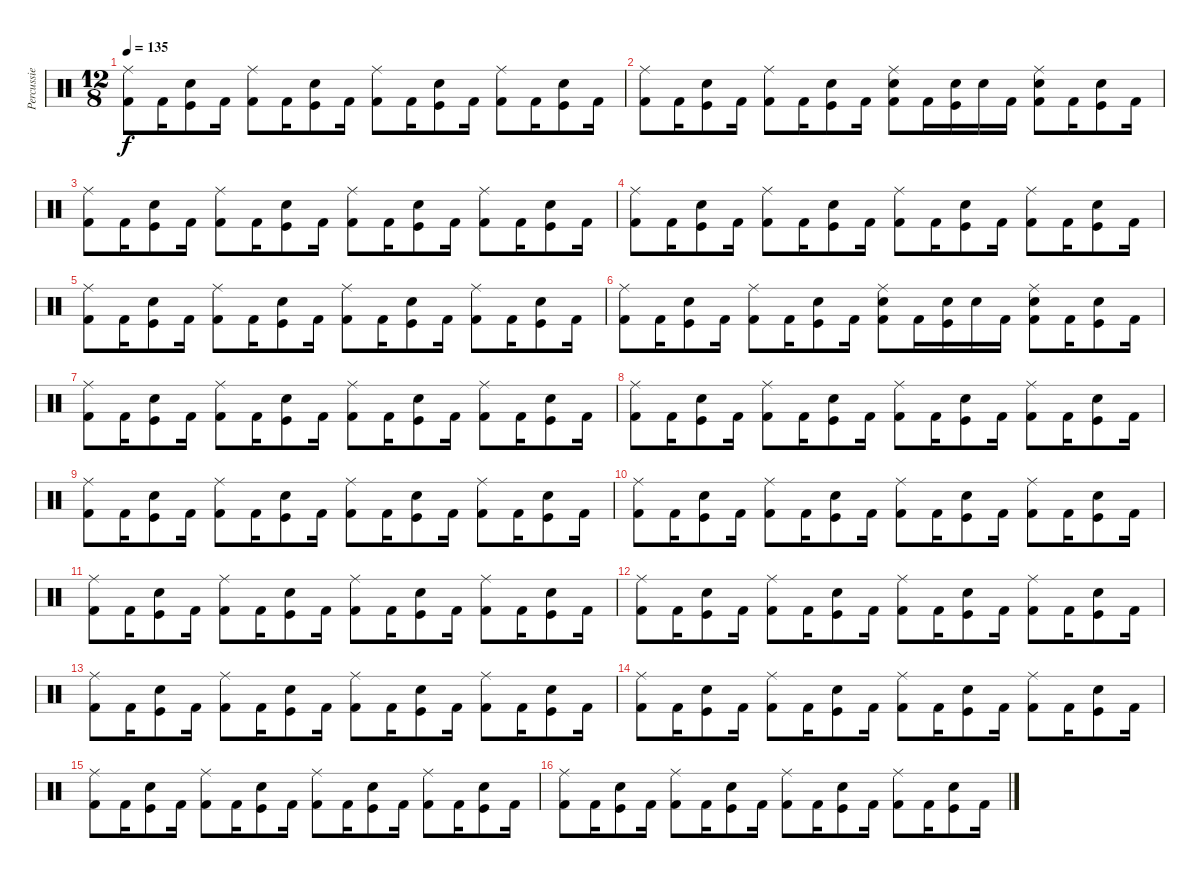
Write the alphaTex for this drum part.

\track ("Percussie" "Percussie") {instrument percussion}
\staff {score}
\articulation defaults
\ts (12 8)
\tempo 135
\clef neutral
\ks c
("Ride (middle)" "Kick (hit) 2").8{dy f} "Kick (hit) 2".16 ("Electric Snare (hit)" "Kick (hit)").8 "Kick (hit) 2".16 ("Ride (middle)" "Kick (hit) 2").8 "Kick (hit) 2".16 ("Electric Snare (hit)" "Kick (hit)").8 "Kick (hit) 2".16 ("Ride (middle)" "Kick (hit) 2").8 "Kick (hit) 2".16 ("Electric Snare (hit)" "Kick (hit)").8 "Kick (hit) 2".16 ("Ride (middle)" "Kick (hit) 2").8 "Kick (hit) 2".16 ("Electric Snare (hit)" "Kick (hit)").8 "Kick (hit) 2".16 |
("Ride (middle)" "Kick (hit) 2").8 "Kick (hit) 2".16 ("Electric Snare (hit)" "Kick (hit)").8 "Kick (hit) 2".16 ("Ride (middle)" "Kick (hit) 2").8 "Kick (hit) 2".16 ("Electric Snare (hit)" "Kick (hit)").8 "Kick (hit) 2".16 ("Ride (middle)" "Electric Snare (hit)" "Kick (hit) 2").8 "Kick (hit) 2".16 ("Electric Snare (hit)" "Kick (hit)").16 "Electric Snare (hit)".16 "Kick (hit) 2".16 ("Ride (middle)" "Electric Snare (hit)" "Kick (hit) 2").8 "Kick (hit) 2".16 ("Electric Snare (hit)" "Kick (hit)").8 "Kick (hit) 2".16 |
("Ride (middle)" "Kick (hit) 2").8 "Kick (hit) 2".16 ("Electric Snare (hit)" "Kick (hit)").8 "Kick (hit) 2".16 ("Ride (middle)" "Kick (hit) 2").8 "Kick (hit) 2".16 ("Electric Snare (hit)" "Kick (hit)").8 "Kick (hit) 2".16 ("Ride (middle)" "Kick (hit) 2").8 "Kick (hit) 2".16 ("Electric Snare (hit)" "Kick (hit)").8 "Kick (hit) 2".16 ("Ride (middle)" "Kick (hit) 2").8 "Kick (hit) 2".16 ("Electric Snare (hit)" "Kick (hit)").8 "Kick (hit) 2".16 |
("Ride (middle)" "Kick (hit) 2").8 "Kick (hit) 2".16 ("Electric Snare (hit)" "Kick (hit)").8 "Kick (hit) 2".16 ("Ride (middle)" "Kick (hit) 2").8 "Kick (hit) 2".16 ("Electric Snare (hit)" "Kick (hit)").8 "Kick (hit) 2".16 ("Ride (middle)" "Kick (hit) 2").8 "Kick (hit) 2".16 ("Electric Snare (hit)" "Kick (hit)").8 "Kick (hit) 2".16 ("Ride (middle)" "Kick (hit) 2").8 "Kick (hit) 2".16 ("Electric Snare (hit)" "Kick (hit)").8 "Kick (hit) 2".16 |
("Ride (middle)" "Kick (hit) 2").8 "Kick (hit) 2".16 ("Electric Snare (hit)" "Kick (hit)").8 "Kick (hit) 2".16 ("Ride (middle)" "Kick (hit) 2").8 "Kick (hit) 2".16 ("Electric Snare (hit)" "Kick (hit)").8 "Kick (hit) 2".16 ("Ride (middle)" "Kick (hit) 2").8 "Kick (hit) 2".16 ("Electric Snare (hit)" "Kick (hit)").8 "Kick (hit) 2".16 ("Ride (middle)" "Kick (hit) 2").8 "Kick (hit) 2".16 ("Electric Snare (hit)" "Kick (hit)").8 "Kick (hit) 2".16 |
("Ride (middle)" "Kick (hit) 2").8 "Kick (hit) 2".16 ("Electric Snare (hit)" "Kick (hit)").8 "Kick (hit) 2".16 ("Ride (middle)" "Kick (hit) 2").8 "Kick (hit) 2".16 ("Electric Snare (hit)" "Kick (hit)").8 "Kick (hit) 2".16 ("Ride (middle)" "Electric Snare (hit)" "Kick (hit) 2").8 "Kick (hit) 2".16 ("Electric Snare (hit)" "Kick (hit)").16 "Electric Snare (hit)".16 "Kick (hit) 2".16 ("Ride (middle)" "Electric Snare (hit)" "Kick (hit) 2").8 "Kick (hit) 2".16 ("Electric Snare (hit)" "Kick (hit)").8 "Kick (hit) 2".16 |
("Ride (middle)" "Kick (hit) 2").8 "Kick (hit) 2".16 ("Electric Snare (hit)" "Kick (hit)").8 "Kick (hit) 2".16 ("Ride (middle)" "Kick (hit) 2").8 "Kick (hit) 2".16 ("Electric Snare (hit)" "Kick (hit)").8 "Kick (hit) 2".16 ("Ride (middle)" "Kick (hit) 2").8 "Kick (hit) 2".16 ("Electric Snare (hit)" "Kick (hit)").8 "Kick (hit) 2".16 ("Ride (middle)" "Kick (hit) 2").8 "Kick (hit) 2".16 ("Electric Snare (hit)" "Kick (hit)").8 "Kick (hit) 2".16 |
("Ride (middle)" "Kick (hit) 2").8 "Kick (hit) 2".16 ("Electric Snare (hit)" "Kick (hit)").8 "Kick (hit) 2".16 ("Ride (middle)" "Kick (hit) 2").8 "Kick (hit) 2".16 ("Electric Snare (hit)" "Kick (hit)").8 "Kick (hit) 2".16 ("Ride (middle)" "Kick (hit) 2").8 "Kick (hit) 2".16 ("Electric Snare (hit)" "Kick (hit)").8 "Kick (hit) 2".16 ("Ride (middle)" "Kick (hit) 2").8 "Kick (hit) 2".16 ("Electric Snare (hit)" "Kick (hit)").8 "Kick (hit) 2".16 |
("Ride (middle)" "Kick (hit) 2").8 "Kick (hit) 2".16 ("Electric Snare (hit)" "Kick (hit)").8 "Kick (hit) 2".16 ("Ride (middle)" "Kick (hit) 2").8 "Kick (hit) 2".16 ("Electric Snare (hit)" "Kick (hit)").8 "Kick (hit) 2".16 ("Ride (middle)" "Kick (hit) 2").8 "Kick (hit) 2".16 ("Electric Snare (hit)" "Kick (hit)").8 "Kick (hit) 2".16 ("Ride (middle)" "Kick (hit) 2").8 "Kick (hit) 2".16 ("Electric Snare (hit)" "Kick (hit)").8 "Kick (hit) 2".16 |
("Ride (middle)" "Kick (hit) 2").8 "Kick (hit) 2".16 ("Electric Snare (hit)" "Kick (hit)").8 "Kick (hit) 2".16 ("Ride (middle)" "Kick (hit) 2").8 "Kick (hit) 2".16 ("Electric Snare (hit)" "Kick (hit)").8 "Kick (hit) 2".16 ("Ride (middle)" "Kick (hit) 2").8 "Kick (hit) 2".16 ("Electric Snare (hit)" "Kick (hit)").8 "Kick (hit) 2".16 ("Ride (middle)" "Kick (hit) 2").8 "Kick (hit) 2".16 ("Electric Snare (hit)" "Kick (hit)").8 "Kick (hit) 2".16 |
("Ride (middle)" "Kick (hit) 2").8 "Kick (hit) 2".16 ("Electric Snare (hit)" "Kick (hit)").8 "Kick (hit) 2".16 ("Ride (middle)" "Kick (hit) 2").8 "Kick (hit) 2".16 ("Electric Snare (hit)" "Kick (hit)").8 "Kick (hit) 2".16 ("Ride (middle)" "Kick (hit) 2").8 "Kick (hit) 2".16 ("Electric Snare (hit)" "Kick (hit)").8 "Kick (hit) 2".16 ("Ride (middle)" "Kick (hit) 2").8 "Kick (hit) 2".16 ("Electric Snare (hit)" "Kick (hit)").8 "Kick (hit) 2".16 |
("Ride (middle)" "Kick (hit) 2").8 "Kick (hit) 2".16 ("Electric Snare (hit)" "Kick (hit)").8 "Kick (hit) 2".16 ("Ride (middle)" "Kick (hit) 2").8 "Kick (hit) 2".16 ("Electric Snare (hit)" "Kick (hit)").8 "Kick (hit) 2".16 ("Ride (middle)" "Kick (hit) 2").8 "Kick (hit) 2".16 ("Electric Snare (hit)" "Kick (hit)").8 "Kick (hit) 2".16 ("Ride (middle)" "Kick (hit) 2").8 "Kick (hit) 2".16 ("Electric Snare (hit)" "Kick (hit)").8 "Kick (hit) 2".16 |
("Ride (middle)" "Kick (hit) 2").8 "Kick (hit) 2".16 ("Electric Snare (hit)" "Kick (hit)").8 "Kick (hit) 2".16 ("Ride (middle)" "Kick (hit) 2").8 "Kick (hit) 2".16 ("Electric Snare (hit)" "Kick (hit)").8 "Kick (hit) 2".16 ("Ride (middle)" "Kick (hit) 2").8 "Kick (hit) 2".16 ("Electric Snare (hit)" "Kick (hit)").8 "Kick (hit) 2".16 ("Ride (middle)" "Kick (hit) 2").8 "Kick (hit) 2".16 ("Electric Snare (hit)" "Kick (hit)").8 "Kick (hit) 2".16 |
("Ride (middle)" "Kick (hit) 2").8 "Kick (hit) 2".16 ("Electric Snare (hit)" "Kick (hit)").8 "Kick (hit) 2".16 ("Ride (middle)" "Kick (hit) 2").8 "Kick (hit) 2".16 ("Electric Snare (hit)" "Kick (hit)").8 "Kick (hit) 2".16 ("Ride (middle)" "Kick (hit) 2").8 "Kick (hit) 2".16 ("Electric Snare (hit)" "Kick (hit)").8 "Kick (hit) 2".16 ("Ride (middle)" "Kick (hit) 2").8 "Kick (hit) 2".16 ("Electric Snare (hit)" "Kick (hit)").8 "Kick (hit) 2".16 |
("Ride (middle)" "Kick (hit) 2").8 "Kick (hit) 2".16 ("Electric Snare (hit)" "Kick (hit)").8 "Kick (hit) 2".16 ("Ride (middle)" "Kick (hit) 2").8 "Kick (hit) 2".16 ("Electric Snare (hit)" "Kick (hit)").8 "Kick (hit) 2".16 ("Ride (middle)" "Kick (hit) 2").8 "Kick (hit) 2".16 ("Electric Snare (hit)" "Kick (hit)").8 "Kick (hit) 2".16 ("Ride (middle)" "Kick (hit) 2").8 "Kick (hit) 2".16 ("Electric Snare (hit)" "Kick (hit)").8 "Kick (hit) 2".16 |
("Ride (middle)" "Kick (hit) 2").8 "Kick (hit) 2".16 ("Electric Snare (hit)" "Kick (hit)").8 "Kick (hit) 2".16 ("Ride (middle)" "Kick (hit) 2").8 "Kick (hit) 2".16 ("Electric Snare (hit)" "Kick (hit)").8 "Kick (hit) 2".16 ("Ride (middle)" "Kick (hit) 2").8 "Kick (hit) 2".16 ("Electric Snare (hit)" "Kick (hit)").8 "Kick (hit) 2".16 ("Ride (middle)" "Kick (hit) 2").8 "Kick (hit) 2".16 ("Electric Snare (hit)" "Kick (hit)").8 "Kick (hit) 2".16
